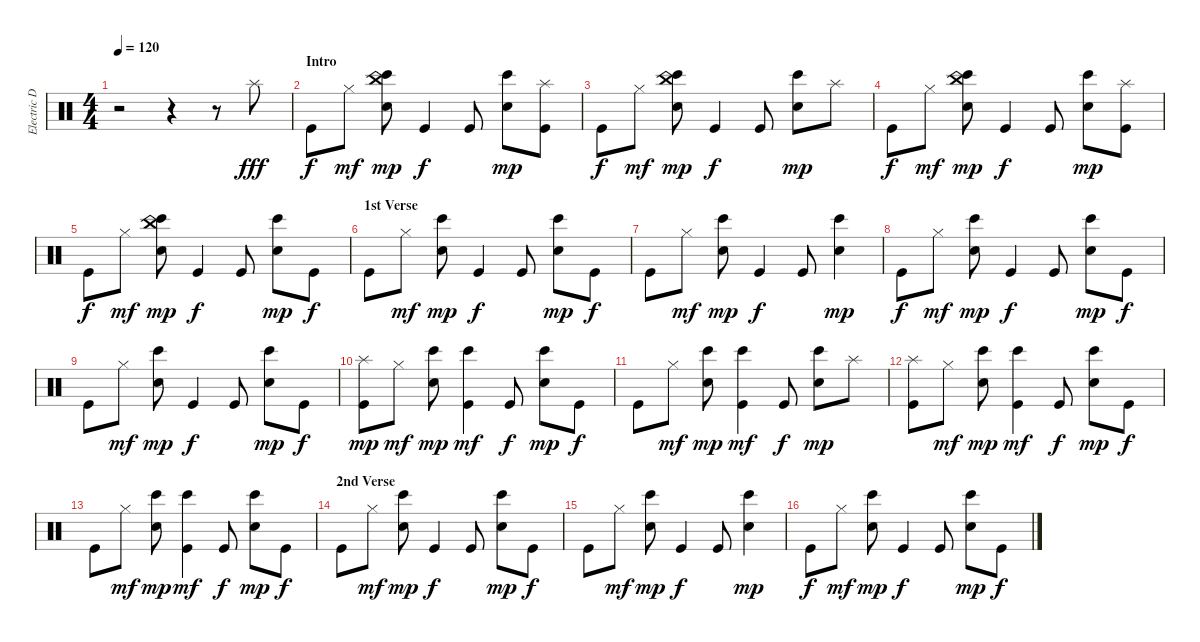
\track ("Electric Drums" "Electric D") {instrument percussion}
\staff {score}
\articulation defaults
\ts (4 4)
\tempo 120
\clef neutral
\ks c
r.2{dy fff} r.4 r.8 "Splash (hit)".8 |
\section ("" "Intro")
"Kick (hit)".8{dy f} "Hi-Hat (closed)".8{dy mf} ("China (hit)" "Bongo High (hit)" "Electric Snare (hit)").8{dy mp} "Kick (hit)".4{dy f} "Kick (hit)".8 ("Bongo High (hit)" "Electric Snare (hit)").8{dy mp} ("Splash (hit)" "Kick (hit)").8 |
"Kick (hit)".8{dy f} "Hi-Hat (closed)".8{dy mf} ("China (hit)" "Bongo High (hit)" "Electric Snare (hit)").8{dy mp} "Kick (hit)".4{dy f} "Kick (hit)".8 ("Bongo High (hit)" "Electric Snare (hit)").8{dy mp} "Splash (hit)".8 |
"Kick (hit)".8{dy f} "Hi-Hat (closed)".8{dy mf} ("China (hit)" "Bongo High (hit)" "Electric Snare (hit)").8{dy mp} "Kick (hit)".4{dy f} "Kick (hit)".8 ("Bongo High (hit)" "Electric Snare (hit)").8{dy mp} ("Splash (hit)" "Kick (hit)").8 |
"Kick (hit)".8{dy f} "Hi-Hat (closed)".8{dy mf} ("China (hit)" "Bongo High (hit)" "Electric Snare (hit)").8{dy mp} "Kick (hit)".4{dy f} "Kick (hit)".8 ("Bongo High (hit)" "Electric Snare (hit)").8{dy mp} "Kick (hit)".8{dy f} |
\section ("" "1st Verse")
"Kick (hit)".8 "Hi-Hat (closed)".8{dy mf} ("Bongo High (hit)" "Electric Snare (hit)").8{dy mp} "Kick (hit)".4{dy f} "Kick (hit)".8 ("Bongo High (hit)" "Electric Snare (hit)").8{dy mp} "Kick (hit)".8{dy f} |
"Kick (hit)".8 "Hi-Hat (closed)".8{dy mf} ("Bongo High (hit)" "Electric Snare (hit)").8{dy mp} "Kick (hit)".4{dy f} "Kick (hit)".8 ("Bongo High (hit)" "Electric Snare (hit)").4{dy mp} |
"Kick (hit)".8{dy f} "Hi-Hat (closed)".8{dy mf} ("Bongo High (hit)" "Electric Snare (hit)").8{dy mp} "Kick (hit)".4{dy f} "Kick (hit)".8 ("Bongo High (hit)" "Electric Snare (hit)").8{dy mp} "Kick (hit)".8{dy f} |
"Kick (hit)".8 "Hi-Hat (closed)".8{dy mf} ("Bongo High (hit)" "Electric Snare (hit)").8{dy mp} "Kick (hit)".4{dy f} "Kick (hit)".8 ("Bongo High (hit)" "Electric Snare (hit)").8{dy mp} "Kick (hit)".8{dy f} |
("Splash (hit)" "Kick (hit)").8{dy mp} "Hi-Hat (closed)".8{dy mf} ("Bongo High (hit)" "Electric Snare (hit)").8{dy mp} ("Bongo High (hit)" "Kick (hit)").4{dy mf} "Kick (hit)".8{dy f} ("Bongo High (hit)" "Electric Snare (hit)").8{dy mp} "Kick (hit)".8{dy f} |
"Kick (hit)".8 "Hi-Hat (closed)".8{dy mf} ("Bongo High (hit)" "Electric Snare (hit)").8{dy mp} ("Bongo High (hit)" "Kick (hit)").4{dy mf} "Kick (hit)".8{dy f} ("Bongo High (hit)" "Electric Snare (hit)").8{dy mp} "Splash (hit)".8 |
("Splash (hit)" "Kick (hit)").8 "Hi-Hat (closed)".8{dy mf} ("Bongo High (hit)" "Electric Snare (hit)").8{dy mp} ("Bongo High (hit)" "Kick (hit)").4{dy mf} "Kick (hit)".8{dy f} ("Bongo High (hit)" "Electric Snare (hit)").8{dy mp} "Kick (hit)".8{dy f} |
"Kick (hit)".8 "Hi-Hat (closed)".8{dy mf} ("Bongo High (hit)" "Electric Snare (hit)").8{dy mp} ("Bongo High (hit)" "Kick (hit)").4{dy mf} "Kick (hit)".8{dy f} ("Bongo High (hit)" "Electric Snare (hit)").8{dy mp} "Kick (hit)".8{dy f} |
\section ("" "2nd Verse")
"Kick (hit)".8 "Hi-Hat (closed)".8{dy mf} ("Bongo High (hit)" "Electric Snare (hit)").8{dy mp} "Kick (hit)".4{dy f} "Kick (hit)".8 ("Bongo High (hit)" "Electric Snare (hit)").8{dy mp} "Kick (hit)".8{dy f} |
"Kick (hit)".8 "Hi-Hat (closed)".8{dy mf} ("Bongo High (hit)" "Electric Snare (hit)").8{dy mp} "Kick (hit)".4{dy f} "Kick (hit)".8 ("Bongo High (hit)" "Electric Snare (hit)").4{dy mp} |
"Kick (hit)".8{dy f} "Hi-Hat (closed)".8{dy mf} ("Bongo High (hit)" "Electric Snare (hit)").8{dy mp} "Kick (hit)".4{dy f} "Kick (hit)".8 ("Bongo High (hit)" "Electric Snare (hit)").8{dy mp} "Kick (hit)".8{dy f}
